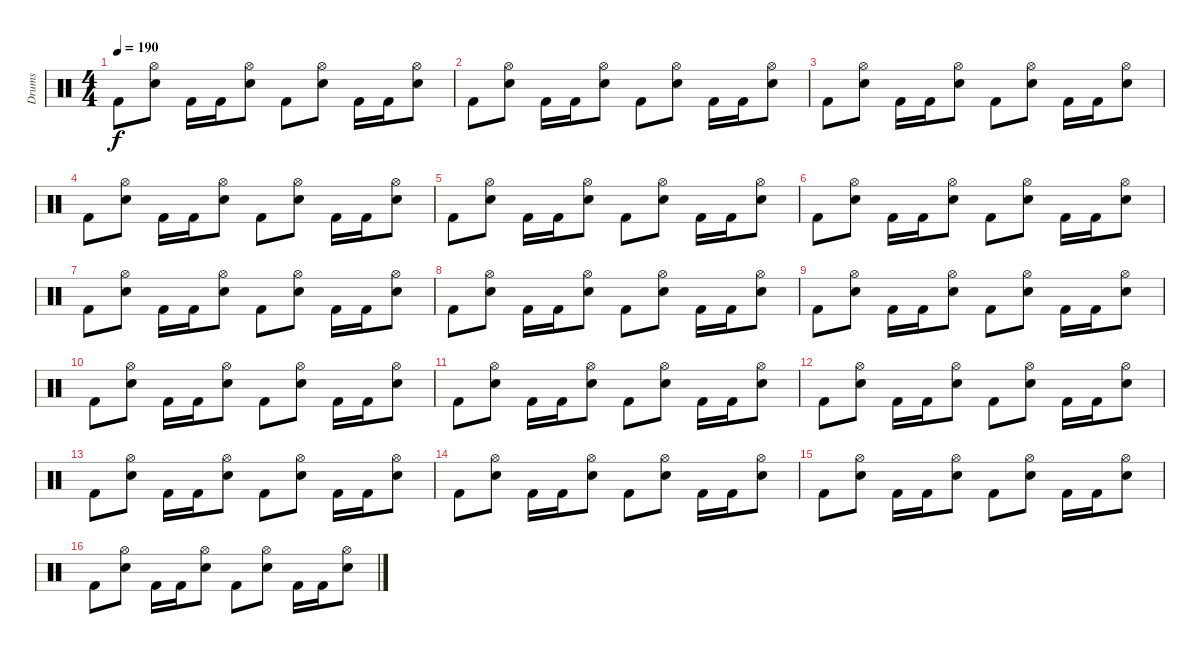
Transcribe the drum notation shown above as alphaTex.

\track ("Drums" "Drums") {instrument percussion}
\staff {score}
\articulation defaults
\ts (4 4)
\tempo 190
\clef neutral
\ks c "Kick (hit) 2".8{dy f}
("Hi-Hat (open)" "Snare (hit) 2").8 "Kick (hit) 2".16 "Kick (hit) 2".16 ("Hi-Hat (open)" "Snare (hit) 2").8 "Kick (hit) 2".8 ("Hi-Hat (open)" "Snare (hit) 2").8 "Kick (hit) 2".16 "Kick (hit) 2".16 ("Hi-Hat (open)" "Snare (hit) 2").8 |
"Kick (hit) 2".8 ("Hi-Hat (open)" "Snare (hit) 2").8 "Kick (hit) 2".16 "Kick (hit) 2".16 ("Hi-Hat (open)" "Snare (hit) 2").8 "Kick (hit) 2".8 ("Hi-Hat (open)" "Snare (hit) 2").8 "Kick (hit) 2".16 "Kick (hit) 2".16 ("Hi-Hat (open)" "Snare (hit) 2").8 |
"Kick (hit) 2".8 ("Hi-Hat (open)" "Snare (hit) 2").8 "Kick (hit) 2".16 "Kick (hit) 2".16 ("Hi-Hat (open)" "Snare (hit) 2").8 "Kick (hit) 2".8 ("Hi-Hat (open)" "Snare (hit) 2").8 "Kick (hit) 2".16 "Kick (hit) 2".16 ("Hi-Hat (open)" "Snare (hit) 2").8 |
"Kick (hit) 2".8 ("Hi-Hat (open)" "Snare (hit) 2").8 "Kick (hit) 2".16 "Kick (hit) 2".16 ("Hi-Hat (open)" "Snare (hit) 2").8 "Kick (hit) 2".8 ("Hi-Hat (open)" "Snare (hit) 2").8 "Kick (hit) 2".16 "Kick (hit) 2".16 ("Hi-Hat (open)" "Snare (hit) 2").8 |
"Kick (hit) 2".8 ("Hi-Hat (open)" "Snare (hit) 2").8 "Kick (hit) 2".16 "Kick (hit) 2".16 ("Hi-Hat (open)" "Snare (hit) 2").8 "Kick (hit) 2".8 ("Hi-Hat (open)" "Snare (hit) 2").8 "Kick (hit) 2".16 "Kick (hit) 2".16 ("Hi-Hat (open)" "Snare (hit) 2").8 |
"Kick (hit) 2".8 ("Hi-Hat (open)" "Snare (hit) 2").8 "Kick (hit) 2".16 "Kick (hit) 2".16 ("Hi-Hat (open)" "Snare (hit) 2").8 "Kick (hit) 2".8 ("Hi-Hat (open)" "Snare (hit) 2").8 "Kick (hit) 2".16 "Kick (hit) 2".16 ("Hi-Hat (open)" "Snare (hit) 2").8 |
"Kick (hit) 2".8 ("Hi-Hat (open)" "Snare (hit) 2").8 "Kick (hit) 2".16 "Kick (hit) 2".16 ("Hi-Hat (open)" "Snare (hit) 2").8 "Kick (hit) 2".8 ("Hi-Hat (open)" "Snare (hit) 2").8 "Kick (hit) 2".16 "Kick (hit) 2".16 ("Hi-Hat (open)" "Snare (hit) 2").8 |
"Kick (hit) 2".8 ("Hi-Hat (open)" "Snare (hit) 2").8 "Kick (hit) 2".16 "Kick (hit) 2".16 ("Hi-Hat (open)" "Snare (hit) 2").8 "Kick (hit) 2".8 ("Hi-Hat (open)" "Snare (hit) 2").8 "Kick (hit) 2".16 "Kick (hit) 2".16 ("Hi-Hat (open)" "Snare (hit) 2").8 |
"Kick (hit) 2".8 ("Hi-Hat (open)" "Snare (hit) 2").8 "Kick (hit) 2".16 "Kick (hit) 2".16 ("Hi-Hat (open)" "Snare (hit) 2").8 "Kick (hit) 2".8 ("Hi-Hat (open)" "Snare (hit) 2").8 "Kick (hit) 2".16 "Kick (hit) 2".16 ("Hi-Hat (open)" "Snare (hit) 2").8 |
"Kick (hit) 2".8 ("Hi-Hat (open)" "Snare (hit) 2").8 "Kick (hit) 2".16 "Kick (hit) 2".16 ("Hi-Hat (open)" "Snare (hit) 2").8 "Kick (hit) 2".8 ("Hi-Hat (open)" "Snare (hit) 2").8 "Kick (hit) 2".16 "Kick (hit) 2".16 ("Hi-Hat (open)" "Snare (hit) 2").8 |
"Kick (hit) 2".8 ("Hi-Hat (open)" "Snare (hit) 2").8 "Kick (hit) 2".16 "Kick (hit) 2".16 ("Hi-Hat (open)" "Snare (hit) 2").8 "Kick (hit) 2".8 ("Hi-Hat (open)" "Snare (hit) 2").8 "Kick (hit) 2".16 "Kick (hit) 2".16 ("Hi-Hat (open)" "Snare (hit) 2").8 |
"Kick (hit) 2".8 ("Hi-Hat (open)" "Snare (hit) 2").8 "Kick (hit) 2".16 "Kick (hit) 2".16 ("Hi-Hat (open)" "Snare (hit) 2").8 "Kick (hit) 2".8 ("Hi-Hat (open)" "Snare (hit) 2").8 "Kick (hit) 2".16 "Kick (hit) 2".16 ("Hi-Hat (open)" "Snare (hit) 2").8 |
"Kick (hit) 2".8 ("Hi-Hat (open)" "Snare (hit) 2").8 "Kick (hit) 2".16 "Kick (hit) 2".16 ("Hi-Hat (open)" "Snare (hit) 2").8 "Kick (hit) 2".8 ("Hi-Hat (open)" "Snare (hit) 2").8 "Kick (hit) 2".16 "Kick (hit) 2".16 ("Hi-Hat (open)" "Snare (hit) 2").8 |
"Kick (hit) 2".8 ("Hi-Hat (open)" "Snare (hit) 2").8 "Kick (hit) 2".16 "Kick (hit) 2".16 ("Hi-Hat (open)" "Snare (hit) 2").8 "Kick (hit) 2".8 ("Hi-Hat (open)" "Snare (hit) 2").8 "Kick (hit) 2".16 "Kick (hit) 2".16 ("Hi-Hat (open)" "Snare (hit) 2").8 |
"Kick (hit) 2".8 ("Hi-Hat (open)" "Snare (hit) 2").8 "Kick (hit) 2".16 "Kick (hit) 2".16 ("Hi-Hat (open)" "Snare (hit) 2").8 "Kick (hit) 2".8 ("Hi-Hat (open)" "Snare (hit) 2").8 "Kick (hit) 2".16 "Kick (hit) 2".16 ("Hi-Hat (open)" "Snare (hit) 2").8 |
"Kick (hit) 2".8 ("Hi-Hat (open)" "Snare (hit) 2").8 "Kick (hit) 2".16 "Kick (hit) 2".16 ("Hi-Hat (open)" "Snare (hit) 2").8 "Kick (hit) 2".8 ("Hi-Hat (open)" "Snare (hit) 2").8 "Kick (hit) 2".16 "Kick (hit) 2".16 ("Hi-Hat (open)" "Snare (hit) 2").8
